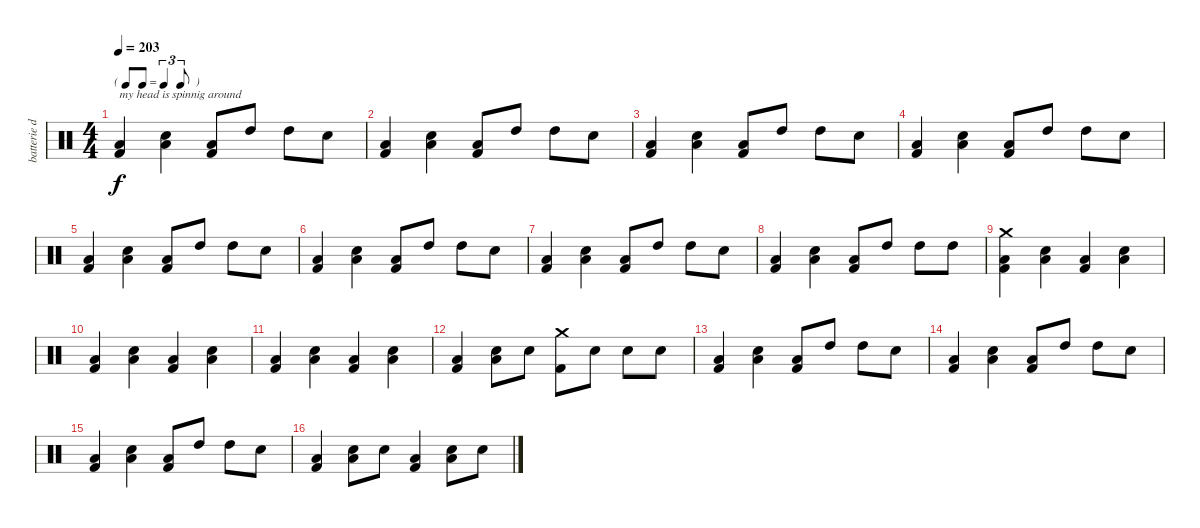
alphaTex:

\track ("batterie dub" "batterie d") {instrument percussion}
\staff {score}
\articulation defaults
\ts (4 4)
\tf triplet8th
\tempo 203
\clef neutral
\ks c
("Low Tom (hit)" "Kick (hit) 2").4{txt "my head is spinnig around" dy f} ("Low Tom (hit)" "Electric Snare (hit)").4 ("Low Tom (hit)" "Kick (hit) 2").8 "High Tom (hit)".8 "High Tom (hit)".8 "Electric Snare (hit)".8 |
("Low Tom (hit)" "Kick (hit) 2").4 ("Low Tom (hit)" "Electric Snare (hit)").4 ("Low Tom (hit)" "Kick (hit) 2").8 "High Tom (hit)".8 "High Tom (hit)".8 "Electric Snare (hit)".8 |
("Low Tom (hit)" "Kick (hit) 2").4 ("Low Tom (hit)" "Electric Snare (hit)").4 ("Low Tom (hit)" "Kick (hit) 2").8 "High Tom (hit)".8 "High Tom (hit)".8 "Electric Snare (hit)".8 |
("Low Tom (hit)" "Kick (hit) 2").4 ("Low Tom (hit)" "Electric Snare (hit)").4 ("Low Tom (hit)" "Kick (hit) 2").8 "High Tom (hit)".8 "High Tom (hit)".8 "Electric Snare (hit)".8 |
("Low Tom (hit)" "Kick (hit) 2").4 ("Low Tom (hit)" "Electric Snare (hit)").4 ("Low Tom (hit)" "Kick (hit) 2").8 "High Tom (hit)".8 "High Tom (hit)".8 "Electric Snare (hit)".8 |
("Low Tom (hit)" "Kick (hit) 2").4 ("Low Tom (hit)" "Electric Snare (hit)").4 ("Low Tom (hit)" "Kick (hit) 2").8 "High Tom (hit)".8 "High Tom (hit)".8 "Electric Snare (hit)".8 |
("Low Tom (hit)" "Kick (hit) 2").4 ("Low Tom (hit)" "Electric Snare (hit)").4 ("Low Tom (hit)" "Kick (hit) 2").8 "High Tom (hit)".8 "High Tom (hit)".8 "Electric Snare (hit)".8 |
("Low Tom (hit)" "Kick (hit) 2").4 ("Low Tom (hit)" "Electric Snare (hit)").4 ("Low Tom (hit)" "Kick (hit) 2").8 "High Tom (hit)".8 "High Tom (hit)".8 "High Tom (hit)".8 |
("Crash medium (hit)" "Low Tom (hit)" "Kick (hit) 2").4 ("Low Tom (hit)" "Electric Snare (hit)").4 ("Low Tom (hit)" "Kick (hit) 2").4 ("Low Tom (hit)" "Electric Snare (hit)").4 |
("Low Tom (hit)" "Kick (hit) 2").4 ("Low Tom (hit)" "Electric Snare (hit)").4 ("Low Tom (hit)" "Kick (hit) 2").4 ("Low Tom (hit)" "Electric Snare (hit)").4 |
("Low Tom (hit)" "Kick (hit) 2").4 ("Low Tom (hit)" "Electric Snare (hit)").4 ("Low Tom (hit)" "Kick (hit) 2").4 ("Low Tom (hit)" "Electric Snare (hit)").4 |
("Low Tom (hit)" "Kick (hit) 2").4 ("Low Tom (hit)" "Electric Snare (hit)").8 "Electric Snare (hit)".8 ("Crash medium (hit)" "Kick (hit) 2").8 "Electric Snare (hit)".8 "Electric Snare (hit)".8 "Electric Snare (hit)".8 |
("Low Tom (hit)" "Kick (hit) 2").4 ("Low Tom (hit)" "Electric Snare (hit)").4 ("Low Tom (hit)" "Kick (hit) 2").8 "High Tom (hit)".8 "High Tom (hit)".8 "Electric Snare (hit)".8 |
("Low Tom (hit)" "Kick (hit) 2").4 ("Low Tom (hit)" "Electric Snare (hit)").4 ("Low Tom (hit)" "Kick (hit) 2").8 "High Tom (hit)".8 "High Tom (hit)".8 "Electric Snare (hit)".8 |
("Low Tom (hit)" "Kick (hit) 2").4 ("Low Tom (hit)" "Electric Snare (hit)").4 ("Low Tom (hit)" "Kick (hit) 2").8 "High Tom (hit)".8 "High Tom (hit)".8 "Electric Snare (hit)".8 |
("Low Tom (hit)" "Kick (hit) 2").4 ("Low Tom (hit)" "Electric Snare (hit)").8 "Electric Snare (hit)".8 ("Low Tom (hit)" "Kick (hit) 2").4 ("Low Tom (hit)" "Electric Snare (hit)").8 "Electric Snare (hit)".8
